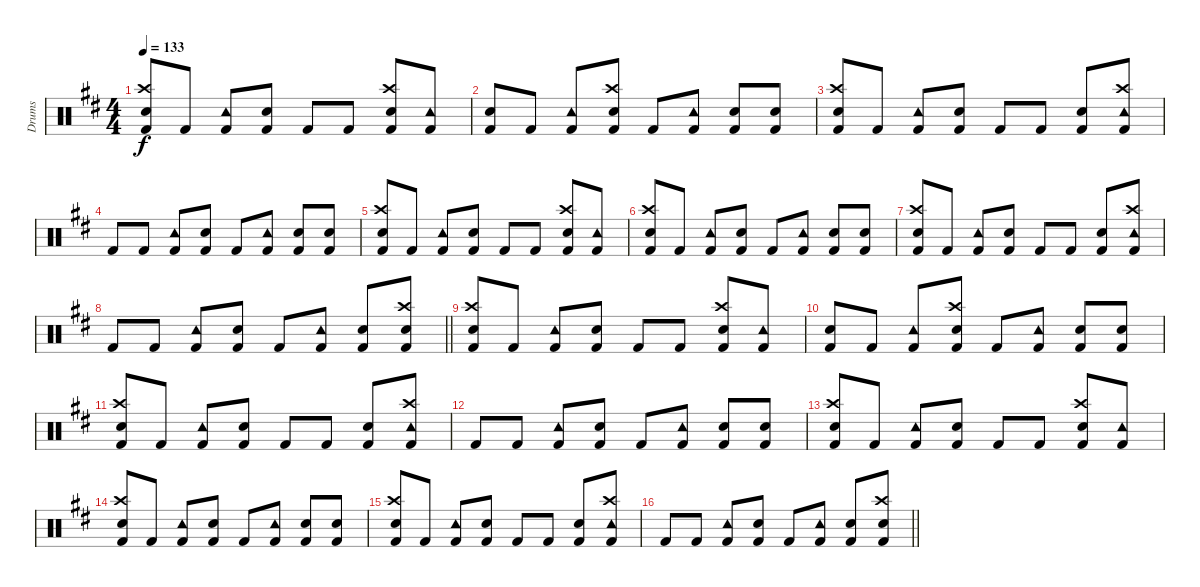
\track ("Drums" "Drums") {instrument percussion}
\staff {score}
\articulation defaults
\ts (4 4)
\tempo 133
\clef neutral
\ks d
("Kick (hit) 2" "Crash high (hit)" "Snare (hit) 2").8{dy f} "Kick (hit) 2".8 ("Kick (hit) 2" "Tambourine (hit)").8 ("Kick (hit) 2" "Snare (hit) 2").8 "Kick (hit) 2".8 "Kick (hit) 2".8 ("Kick (hit) 2" "Snare (hit) 2" "Crash high (hit)").8 ("Kick (hit) 2" "Tambourine (hit)").8 |
("Kick (hit) 2" "Snare (hit) 2").8 "Kick (hit) 2".8 ("Kick (hit) 2" "Tambourine (hit)").8 ("Kick (hit) 2" "Snare (hit) 2" "Crash high (hit)").8 "Kick (hit) 2".8 ("Kick (hit) 2" "Tambourine (hit)").8 ("Kick (hit) 2" "Snare (hit) 2").8 ("Kick (hit) 2" "Snare (hit) 2").8 |
("Kick (hit) 2" "Crash high (hit)" "Snare (hit) 2").8 "Kick (hit) 2".8 ("Kick (hit) 2" "Tambourine (hit)").8 ("Kick (hit) 2" "Snare (hit) 2").8 "Kick (hit) 2".8 "Kick (hit) 2".8 ("Kick (hit) 2" "Snare (hit) 2").8 ("Kick (hit) 2" "Tambourine (hit)" "Crash high (hit)").8 |
"Kick (hit) 2".8 "Kick (hit) 2".8 ("Kick (hit) 2" "Tambourine (hit)").8 ("Kick (hit) 2" "Snare (hit) 2").8 "Kick (hit) 2".8 ("Kick (hit) 2" "Tambourine (hit)").8 ("Kick (hit) 2" "Snare (hit) 2").8 ("Kick (hit) 2" "Snare (hit) 2").8 |
("Kick (hit) 2" "Crash high (hit)" "Snare (hit) 2").8 "Kick (hit) 2".8 ("Kick (hit) 2" "Tambourine (hit)").8 ("Kick (hit) 2" "Snare (hit) 2").8 "Kick (hit) 2".8 "Kick (hit) 2".8 ("Kick (hit) 2" "Snare (hit) 2" "Crash high (hit)").8 ("Kick (hit) 2" "Tambourine (hit)").8 |
("Kick (hit) 2" "Snare (hit) 2" "Crash high (hit)").8 "Kick (hit) 2".8 ("Kick (hit) 2" "Tambourine (hit)").8 ("Kick (hit) 2" "Snare (hit) 2").8 "Kick (hit) 2".8 ("Kick (hit) 2" "Tambourine (hit)").8 ("Kick (hit) 2" "Snare (hit) 2").8 ("Kick (hit) 2" "Snare (hit) 2").8 |
("Kick (hit) 2" "Crash high (hit)" "Snare (hit) 2").8 "Kick (hit) 2".8 ("Kick (hit) 2" "Tambourine (hit)").8 ("Kick (hit) 2" "Snare (hit) 2").8 "Kick (hit) 2".8 "Kick (hit) 2".8 ("Kick (hit) 2" "Snare (hit) 2").8 ("Kick (hit) 2" "Tambourine (hit)" "Crash high (hit)").8 |
\barLineRight lightlight "Kick (hit) 2".8 "Kick (hit) 2".8
("Kick (hit) 2" "Tambourine (hit)").8 ("Kick (hit) 2" "Snare (hit) 2").8 "Kick (hit) 2".8 ("Kick (hit) 2" "Tambourine (hit)").8 ("Kick (hit) 2" "Snare (hit) 2").8 ("Kick (hit) 2" "Snare (hit) 2" "Crash high (hit)").8 |
("Kick (hit) 2" "Crash high (hit)" "Snare (hit) 2").8 "Kick (hit) 2".8 ("Kick (hit) 2" "Tambourine (hit)").8 ("Kick (hit) 2" "Snare (hit) 2").8 "Kick (hit) 2".8 "Kick (hit) 2".8 ("Kick (hit) 2" "Snare (hit) 2" "Crash high (hit)").8 ("Kick (hit) 2" "Tambourine (hit)").8 |
("Kick (hit) 2" "Snare (hit) 2").8 "Kick (hit) 2".8 ("Kick (hit) 2" "Tambourine (hit)").8 ("Kick (hit) 2" "Snare (hit) 2" "Crash high (hit)").8 "Kick (hit) 2".8 ("Kick (hit) 2" "Tambourine (hit)").8 ("Kick (hit) 2" "Snare (hit) 2").8 ("Kick (hit) 2" "Snare (hit) 2").8 |
("Kick (hit) 2" "Crash high (hit)" "Snare (hit) 2").8 "Kick (hit) 2".8 ("Kick (hit) 2" "Tambourine (hit)").8 ("Kick (hit) 2" "Snare (hit) 2").8 "Kick (hit) 2".8 "Kick (hit) 2".8 ("Kick (hit) 2" "Snare (hit) 2").8 ("Kick (hit) 2" "Tambourine (hit)" "Crash high (hit)").8 |
"Kick (hit) 2".8 "Kick (hit) 2".8 ("Kick (hit) 2" "Tambourine (hit)").8 ("Kick (hit) 2" "Snare (hit) 2").8 "Kick (hit) 2".8 ("Kick (hit) 2" "Tambourine (hit)").8 ("Kick (hit) 2" "Snare (hit) 2").8 ("Kick (hit) 2" "Snare (hit) 2").8 |
("Kick (hit) 2" "Crash high (hit)" "Snare (hit) 2").8 "Kick (hit) 2".8 ("Kick (hit) 2" "Tambourine (hit)").8 ("Kick (hit) 2" "Snare (hit) 2").8 "Kick (hit) 2".8 "Kick (hit) 2".8 ("Kick (hit) 2" "Snare (hit) 2" "Crash high (hit)").8 ("Kick (hit) 2" "Tambourine (hit)").8 |
("Kick (hit) 2" "Snare (hit) 2" "Crash high (hit)").8 "Kick (hit) 2".8 ("Kick (hit) 2" "Tambourine (hit)").8 ("Kick (hit) 2" "Snare (hit) 2").8 "Kick (hit) 2".8 ("Kick (hit) 2" "Tambourine (hit)").8 ("Kick (hit) 2" "Snare (hit) 2").8 ("Kick (hit) 2" "Snare (hit) 2").8 |
("Kick (hit) 2" "Crash high (hit)" "Snare (hit) 2").8 "Kick (hit) 2".8 ("Kick (hit) 2" "Tambourine (hit)").8 ("Kick (hit) 2" "Snare (hit) 2").8 "Kick (hit) 2".8 "Kick (hit) 2".8 ("Kick (hit) 2" "Snare (hit) 2").8 ("Kick (hit) 2" "Tambourine (hit)" "Crash high (hit)").8 |
\barLineRight lightlight "Kick (hit) 2".8 "Kick (hit) 2".8
("Kick (hit) 2" "Tambourine (hit)").8 ("Kick (hit) 2" "Snare (hit) 2").8 "Kick (hit) 2".8 ("Kick (hit) 2" "Tambourine (hit)").8 ("Kick (hit) 2" "Snare (hit) 2").8 ("Kick (hit) 2" "Snare (hit) 2" "Crash high (hit)").8
